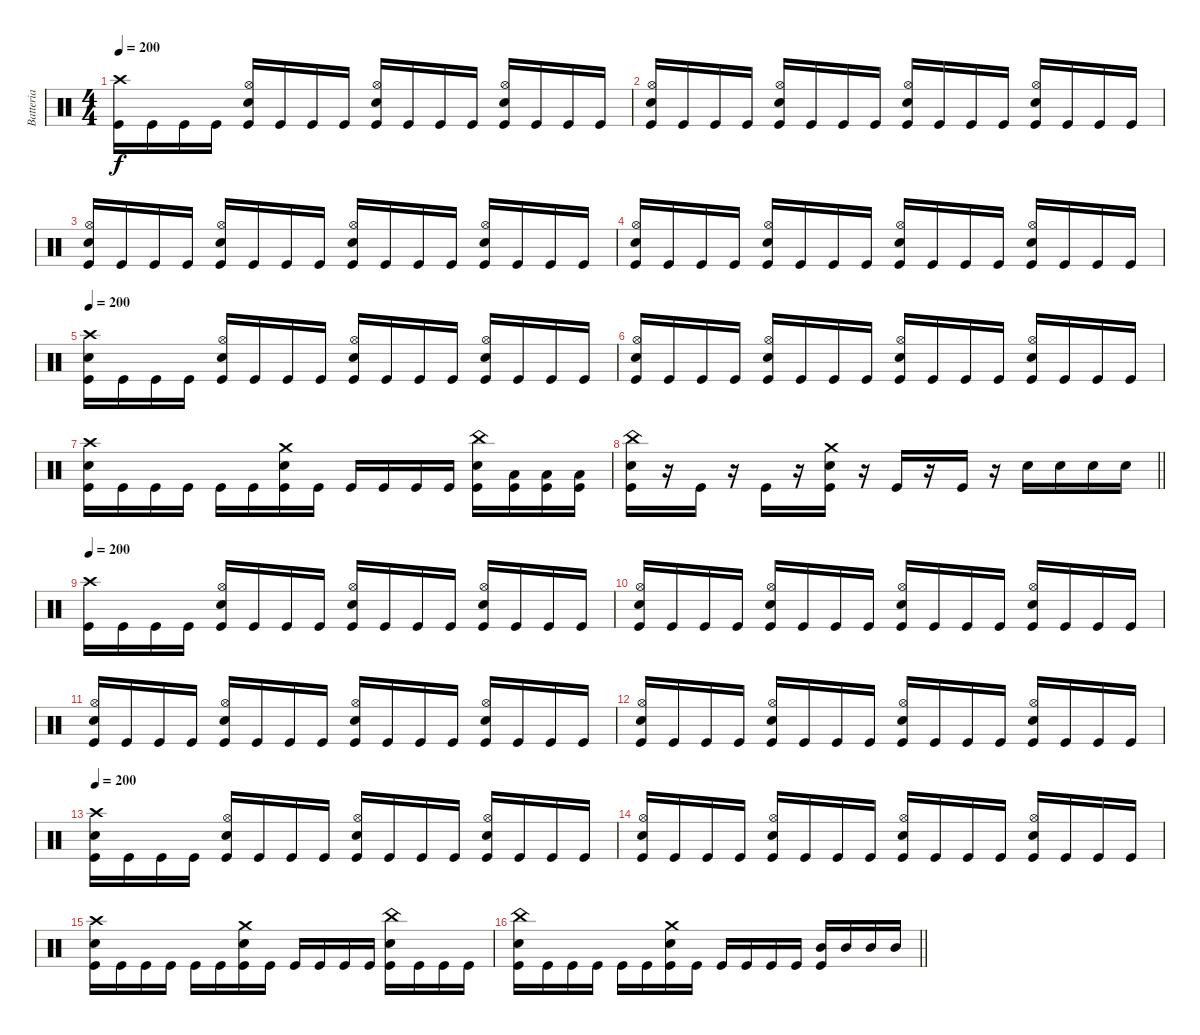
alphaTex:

\track ("Batteria" "Batteria") {instrument percussion}
\staff {score}
\articulation defaults
\ts (4 4)
\tempo 200
\clef neutral
\ks c
("Crash high (hit)" "Kick (hit)").16{dy f} "Kick (hit)".16 "Kick (hit)".16 "Kick (hit)".16 ("Hi-Hat (open)" "Electric Snare (hit)" "Kick (hit)").16 "Kick (hit)".16 "Kick (hit)".16 "Kick (hit)".16 ("Hi-Hat (open)" "Electric Snare (hit)" "Kick (hit)").16 "Kick (hit)".16 "Kick (hit)".16 "Kick (hit)".16 ("Hi-Hat (open)" "Electric Snare (hit)" "Kick (hit)").16 "Kick (hit)".16 "Kick (hit)".16 "Kick (hit)".16 |
("Hi-Hat (open)" "Electric Snare (hit)" "Kick (hit)").16 "Kick (hit)".16 "Kick (hit)".16 "Kick (hit)".16 ("Hi-Hat (open)" "Electric Snare (hit)" "Kick (hit)").16 "Kick (hit)".16 "Kick (hit)".16 "Kick (hit)".16 ("Hi-Hat (open)" "Electric Snare (hit)" "Kick (hit)").16 "Kick (hit)".16 "Kick (hit)".16 "Kick (hit)".16 ("Hi-Hat (open)" "Electric Snare (hit)" "Kick (hit)").16 "Kick (hit)".16 "Kick (hit)".16 "Kick (hit)".16 |
("Hi-Hat (open)" "Electric Snare (hit)" "Kick (hit)").16 "Kick (hit)".16 "Kick (hit)".16 "Kick (hit)".16 ("Hi-Hat (open)" "Electric Snare (hit)" "Kick (hit)").16 "Kick (hit)".16 "Kick (hit)".16 "Kick (hit)".16 ("Hi-Hat (open)" "Electric Snare (hit)" "Kick (hit)").16 "Kick (hit)".16 "Kick (hit)".16 "Kick (hit)".16 ("Hi-Hat (open)" "Electric Snare (hit)" "Kick (hit)").16 "Kick (hit)".16 "Kick (hit)".16 "Kick (hit)".16 |
("Hi-Hat (open)" "Electric Snare (hit)" "Kick (hit)").16 "Kick (hit)".16 "Kick (hit)".16 "Kick (hit)".16 ("Hi-Hat (open)" "Electric Snare (hit)" "Kick (hit)").16 "Kick (hit)".16 "Kick (hit)".16 "Kick (hit)".16 ("Hi-Hat (open)" "Electric Snare (hit)" "Kick (hit)").16 "Kick (hit)".16 "Kick (hit)".16 "Kick (hit)".16 ("Hi-Hat (open)" "Electric Snare (hit)" "Kick (hit)").16 "Kick (hit)".16 "Kick (hit)".16 "Kick (hit)".16 |
\tempo 200
("Crash high (hit)" "Electric Snare (hit)" "Kick (hit)").16 "Kick (hit)".16 "Kick (hit)".16 "Kick (hit)".16 ("Hi-Hat (open)" "Electric Snare (hit)" "Kick (hit)").16 "Kick (hit)".16 "Kick (hit)".16 "Kick (hit)".16 ("Hi-Hat (open)" "Electric Snare (hit)" "Kick (hit)").16 "Kick (hit)".16 "Kick (hit)".16 "Kick (hit)".16 ("Hi-Hat (open)" "Electric Snare (hit)" "Kick (hit)").16 "Kick (hit)".16 "Kick (hit)".16 "Kick (hit)".16 |
("Hi-Hat (open)" "Electric Snare (hit)" "Kick (hit)").16 "Kick (hit)".16 "Kick (hit)".16 "Kick (hit)".16 ("Hi-Hat (open)" "Electric Snare (hit)" "Kick (hit)").16 "Kick (hit)".16 "Kick (hit)".16 "Kick (hit)".16 ("Hi-Hat (open)" "Electric Snare (hit)" "Kick (hit)").16 "Kick (hit)".16 "Kick (hit)".16 "Kick (hit)".16 ("Hi-Hat (open)" "Electric Snare (hit)" "Kick (hit)").16 "Kick (hit)".16 "Kick (hit)".16 "Kick (hit)".16 |
("Crash high (hit)" "Electric Snare (hit)" "Kick (hit)").16 "Kick (hit)".16 "Kick (hit)".16 "Kick (hit)".16 "Kick (hit)".16 "Kick (hit)".16 ("Crash medium (hit)" "Electric Snare (hit)" "Kick (hit)").16 "Kick (hit)".16 "Kick (hit)".16 "Kick (hit)".16 "Kick (hit)".16 "Kick (hit)".16 ("China (hit)" "Electric Snare (hit)" "Kick (hit)").16 ("Low Tom (hit)" "Kick (hit)").16 ("Low Tom (hit)" "Kick (hit)").16 ("Low Tom (hit)" "Kick (hit)").16 |
\barLineRight lightlight
("China (hit)" "Electric Snare (hit)" "Kick (hit)").16 r.16 "Kick (hit)".16 r.16 "Kick (hit)".16 r.16 ("Crash medium (hit)" "Electric Snare (hit)" "Kick (hit)").16 r.16 "Kick (hit)".16 r.16 "Kick (hit)".16 r.16 "Electric Snare (hit)".16 "Electric Snare (hit)".16 "Electric Snare (hit)".16 "Electric Snare (hit)".16 |
\tempo 200
("Crash high (hit)" "Kick (hit)").16 "Kick (hit)".16 "Kick (hit)".16 "Kick (hit)".16 ("Hi-Hat (open)" "Electric Snare (hit)" "Kick (hit)").16 "Kick (hit)".16 "Kick (hit)".16 "Kick (hit)".16 ("Hi-Hat (open)" "Electric Snare (hit)" "Kick (hit)").16 "Kick (hit)".16 "Kick (hit)".16 "Kick (hit)".16 ("Hi-Hat (open)" "Electric Snare (hit)" "Kick (hit)").16 "Kick (hit)".16 "Kick (hit)".16 "Kick (hit)".16 |
("Hi-Hat (open)" "Electric Snare (hit)" "Kick (hit)").16 "Kick (hit)".16 "Kick (hit)".16 "Kick (hit)".16 ("Hi-Hat (open)" "Electric Snare (hit)" "Kick (hit)").16 "Kick (hit)".16 "Kick (hit)".16 "Kick (hit)".16 ("Hi-Hat (open)" "Electric Snare (hit)" "Kick (hit)").16 "Kick (hit)".16 "Kick (hit)".16 "Kick (hit)".16 ("Hi-Hat (open)" "Electric Snare (hit)" "Kick (hit)").16 "Kick (hit)".16 "Kick (hit)".16 "Kick (hit)".16 |
("Hi-Hat (open)" "Electric Snare (hit)" "Kick (hit)").16 "Kick (hit)".16 "Kick (hit)".16 "Kick (hit)".16 ("Hi-Hat (open)" "Electric Snare (hit)" "Kick (hit)").16 "Kick (hit)".16 "Kick (hit)".16 "Kick (hit)".16 ("Hi-Hat (open)" "Electric Snare (hit)" "Kick (hit)").16 "Kick (hit)".16 "Kick (hit)".16 "Kick (hit)".16 ("Hi-Hat (open)" "Electric Snare (hit)" "Kick (hit)").16 "Kick (hit)".16 "Kick (hit)".16 "Kick (hit)".16 |
("Hi-Hat (open)" "Electric Snare (hit)" "Kick (hit)").16 "Kick (hit)".16 "Kick (hit)".16 "Kick (hit)".16 ("Hi-Hat (open)" "Electric Snare (hit)" "Kick (hit)").16 "Kick (hit)".16 "Kick (hit)".16 "Kick (hit)".16 ("Hi-Hat (open)" "Electric Snare (hit)" "Kick (hit)").16 "Kick (hit)".16 "Kick (hit)".16 "Kick (hit)".16 ("Hi-Hat (open)" "Electric Snare (hit)" "Kick (hit)").16 "Kick (hit)".16 "Kick (hit)".16 "Kick (hit)".16 |
\tempo 200
("Crash high (hit)" "Electric Snare (hit)" "Kick (hit)").16 "Kick (hit)".16 "Kick (hit)".16 "Kick (hit)".16 ("Hi-Hat (open)" "Electric Snare (hit)" "Kick (hit)").16 "Kick (hit)".16 "Kick (hit)".16 "Kick (hit)".16 ("Hi-Hat (open)" "Electric Snare (hit)" "Kick (hit)").16 "Kick (hit)".16 "Kick (hit)".16 "Kick (hit)".16 ("Hi-Hat (open)" "Electric Snare (hit)" "Kick (hit)").16 "Kick (hit)".16 "Kick (hit)".16 "Kick (hit)".16 |
("Hi-Hat (open)" "Electric Snare (hit)" "Kick (hit)").16 "Kick (hit)".16 "Kick (hit)".16 "Kick (hit)".16 ("Hi-Hat (open)" "Electric Snare (hit)" "Kick (hit)").16 "Kick (hit)".16 "Kick (hit)".16 "Kick (hit)".16 ("Hi-Hat (open)" "Electric Snare (hit)" "Kick (hit)").16 "Kick (hit)".16 "Kick (hit)".16 "Kick (hit)".16 ("Hi-Hat (open)" "Electric Snare (hit)" "Kick (hit)").16 "Kick (hit)".16 "Kick (hit)".16 "Kick (hit)".16 |
("Crash high (hit)" "Electric Snare (hit)" "Kick (hit)").16 "Kick (hit)".16 "Kick (hit)".16 "Kick (hit)".16 "Kick (hit)".16 "Kick (hit)".16 ("Crash medium (hit)" "Electric Snare (hit)" "Kick (hit)").16 "Kick (hit)".16 "Kick (hit)".16 "Kick (hit)".16 "Kick (hit)".16 "Kick (hit)".16 ("China (hit)" "Electric Snare (hit)" "Kick (hit)").16 "Kick (hit)".16 "Kick (hit)".16 "Kick (hit)".16 |
\barLineRight lightlight
("China (hit)" "Electric Snare (hit)" "Kick (hit)").16 "Kick (hit)".16 "Kick (hit)".16 "Kick (hit)".16 "Kick (hit)".16 "Kick (hit)".16 ("Crash medium (hit)" "Electric Snare (hit)" "Kick (hit)").16 "Kick (hit)".16 "Kick (hit)".16 "Kick (hit)".16 "Kick (hit)".16 "Kick (hit)".16 ("Mid Tom (hit)" "Kick (hit)").16 "Mid Tom (hit)".16 "Mid Tom (hit)".16 "Mid Tom (hit)".16
